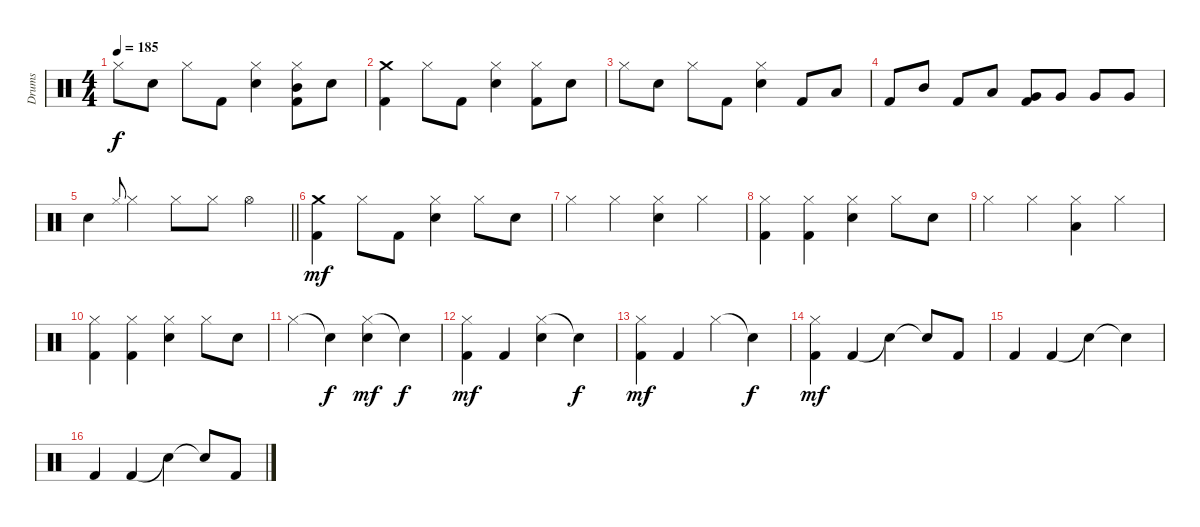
\track ("Drums" "Drums") {instrument percussion}
\staff {score}
\articulation defaults
\ts (4 4)
\tempo 185
\clef neutral
\ks c "Hi-Hat (closed)".8{dy f} "Snare (hit) 2".8 "Hi-Hat (closed)".8 "Kick (hit) 2".8
("Hi-Hat (closed)" "Snare (hit) 2").4 ("Hi-Hat (closed)" "Mid Tom (hit)" "Kick (hit) 2").8 "Snare (hit) 2".8 |
("Crash medium (hit)" "Kick (hit) 2").4 "Hi-Hat (closed)".8 "Kick (hit) 2".8 ("Hi-Hat (closed)" "Snare (hit) 2").4 ("Hi-Hat (closed)" "Kick (hit) 2").8 "Snare (hit) 2".8 |
"Hi-Hat (closed)".8 "Snare (hit) 2".8 "Hi-Hat (closed)".8 "Kick (hit) 2".8 ("Hi-Hat (closed)" "Snare (hit) 2").4 "Kick (hit) 2".8 "Low Tom (hit)".8 |
"Kick (hit) 2".8 "Mid Tom (hit)".8 "Kick (hit) 2".8 "Low Tom (hit)".8 ("Very Low Tom (hit)" "Kick (hit) 2").8 "Very Low Tom (hit)".8 "Very Low Tom (hit)".8 "Very Low Tom (hit)".8 |
\barLineRight lightlight "Snare (hit) 2".4 "Hi-Hat (closed)".8{gr onbeat} "Hi-Hat (closed)".4 "Hi-Hat (closed)".8 "Hi-Hat (closed)".8 "Hi-Hat (open)".4
|
\section ("" "")
("Crash medium (hit)" "Kick (hit) 2").4{dy mf} "Hi-Hat (closed)".8 "Kick (hit) 2".8 ("Hi-Hat (closed)" "Snare (hit) 2").4 "Hi-Hat (closed)".8 "Snare (hit) 2".8 |
"Hi-Hat (closed)".4 "Hi-Hat (closed)".4 ("Hi-Hat (closed)" "Snare (hit) 2").4 "Hi-Hat (closed)".4 |
("Hi-Hat (closed)" "Kick (hit) 2").4 ("Hi-Hat (closed)" "Kick (hit) 2").4 ("Hi-Hat (closed)" "Snare (hit) 2").4 "Hi-Hat (closed)".8 "Snare (hit) 2".8 |
"Hi-Hat (closed)".4 "Hi-Hat (closed)".4 ("Hi-Hat (closed)" "Low Tom (hit)").4 "Hi-Hat (closed)".4 |
("Hi-Hat (closed)" "Kick (hit) 2").4 ("Hi-Hat (closed)" "Kick (hit) 2").4 ("Hi-Hat (closed)" "Snare (hit) 2").4 "Hi-Hat (closed)".8 "Snare (hit) 2".8 |
"Hi-Hat (closed)".4 "Snare (hit)"{t}.4{dy f} ("Hi-Hat (closed)" "Snare (hit) 2").4{dy mf} "Snare (hit)"{t}.4{dy f} |
("Hi-Hat (closed)" "Kick (hit) 2").4{dy mf} "Kick (hit) 2".4 ("Hi-Hat (closed)" "Snare (hit) 2").4 "Snare (hit)"{t}.4{dy f} |
("Hi-Hat (closed)" "Kick (hit) 2").4{dy mf} "Kick (hit) 2".4 "Hi-Hat (closed)".4 "Snare (hit)"{t}.4{dy f} |
("Hi-Hat (closed)" "Kick (hit) 2").4{dy mf} "Kick (hit) 2".4 "Snare (hit)"{t}.4 "Snare (hit)"{t}.8 "Kick (hit) 2".8 |
"Kick (hit) 2".4 "Kick (hit) 2".4 "Snare (hit)"{t}.4 "Snare (hit)"{t}.4 |
"Kick (hit) 2".4 "Kick (hit) 2".4 "Snare (hit)"{t}.4 "Snare (hit)"{t}.8 "Kick (hit) 2".8
